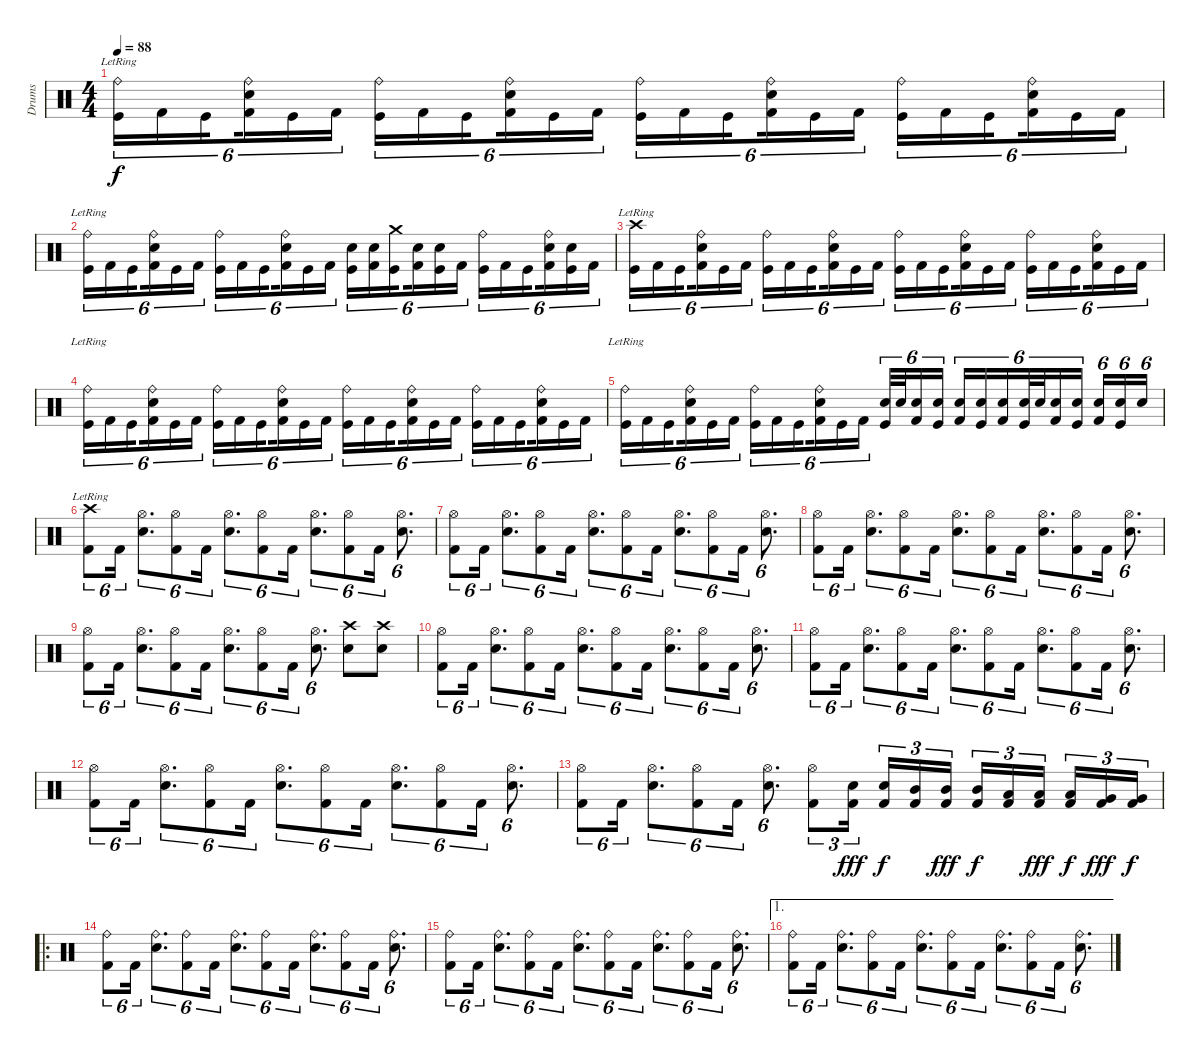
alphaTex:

\track ("Drums" "Drums") {instrument percussion}
\staff {score}
\articulation defaults
\ts (4 4)
\tempo 88
\clef neutral
\ks c
("Ride (bell)"{lr} "Kick (hit)").16{tu (6 4) dy f} "Kick (hit) 2".16{tu (6 4)} "Kick (hit)".16{tu (6 4) beam splitsecondary} ("Ride (bell)" "Snare (hit) 2" "Kick (hit) 2").16{tu (6 4)} "Kick (hit)".16{tu (6 4)} "Kick (hit) 2".16{tu (6 4)} ("Ride (bell)" "Kick (hit)").16{tu (6 4)} "Kick (hit) 2".16{tu (6 4)} "Kick (hit)".16{tu (6 4) beam splitsecondary} ("Ride (bell)" "Snare (hit) 2" "Kick (hit) 2").16{tu (6 4)} "Kick (hit)".16{tu (6 4)} "Kick (hit) 2".16{tu (6 4)} ("Ride (bell)" "Kick (hit)").16{tu (6 4)} "Kick (hit) 2".16{tu (6 4)} "Kick (hit)".16{tu (6 4) beam splitsecondary} ("Ride (bell)" "Snare (hit) 2" "Kick (hit) 2").16{tu (6 4)} "Kick (hit)".16{tu (6 4)} "Kick (hit) 2".16{tu (6 4)} ("Ride (bell)" "Kick (hit)").16{tu (6 4)} "Kick (hit) 2".16{tu (6 4)} "Kick (hit)".16{tu (6 4) beam splitsecondary} ("Ride (bell)" "Snare (hit) 2" "Kick (hit) 2").16{tu (6 4)} "Kick (hit)".16{tu (6 4)} "Kick (hit) 2".16{tu (6 4)} |
("Ride (bell)"{lr} "Kick (hit)").16{tu (6 4)} "Kick (hit) 2".16{tu (6 4)} "Kick (hit)".16{tu (6 4) beam splitsecondary} ("Ride (bell)" "Snare (hit) 2" "Kick (hit) 2").16{tu (6 4)} "Kick (hit)".16{tu (6 4)} "Kick (hit) 2".16{tu (6 4)} ("Ride (bell)" "Kick (hit)").16{tu (6 4)} "Kick (hit) 2".16{tu (6 4)} "Kick (hit)".16{tu (6 4) beam splitsecondary} ("Ride (bell)" "Snare (hit) 2" "Kick (hit) 2").16{tu (6 4)} "Kick (hit)".16{tu (6 4)} "Kick (hit) 2".16{tu (6 4)} ("Snare (hit) 2" "Kick (hit)").16{tu (6 4)} ("Snare (hit) 2" "Kick (hit) 2").16{tu (6 4)} ("Crash medium (hit)" "Kick (hit)").16{tu (6 4) beam splitsecondary} ("Snare (hit) 2" "Kick (hit) 2").16{tu (6 4)} ("Snare (hit) 2" "Kick (hit)").16{tu (6 4)} "Kick (hit) 2".16{tu (6 4)} ("Ride (bell)" "Kick (hit)").16{tu (6 4)} "Kick (hit) 2".16{tu (6 4)} "Kick (hit)".16{tu (6 4) beam splitsecondary} ("Ride (bell)" "Snare (hit) 2" "Kick (hit) 2").16{tu (6 4)} ("Snare (hit) 2" "Kick (hit)").16{tu (6 4)} "Kick (hit) 2".16{tu (6 4)} |
("Crash high (hit)"{lr} "Kick (hit)").16{tu (6 4)} "Kick (hit) 2".16{tu (6 4)} "Kick (hit)".16{tu (6 4) beam splitsecondary} ("Ride (bell)" "Snare (hit) 2" "Kick (hit) 2").16{tu (6 4)} "Kick (hit)".16{tu (6 4)} "Kick (hit) 2".16{tu (6 4)} ("Ride (bell)" "Kick (hit)").16{tu (6 4)} "Kick (hit) 2".16{tu (6 4)} "Kick (hit)".16{tu (6 4) beam splitsecondary} ("Ride (bell)" "Snare (hit) 2" "Kick (hit) 2").16{tu (6 4)} "Kick (hit)".16{tu (6 4)} "Kick (hit) 2".16{tu (6 4)} ("Ride (bell)" "Kick (hit)").16{tu (6 4)} "Kick (hit) 2".16{tu (6 4)} "Kick (hit)".16{tu (6 4) beam splitsecondary} ("Ride (bell)" "Snare (hit) 2" "Kick (hit) 2").16{tu (6 4)} "Kick (hit)".16{tu (6 4)} "Kick (hit) 2".16{tu (6 4)} ("Ride (bell)" "Kick (hit)").16{tu (6 4)} "Kick (hit) 2".16{tu (6 4)} "Kick (hit)".16{tu (6 4) beam splitsecondary} ("Ride (bell)" "Snare (hit) 2" "Kick (hit) 2").16{tu (6 4)} "Kick (hit)".16{tu (6 4)} "Kick (hit) 2".16{tu (6 4)} |
("Ride (bell)"{lr} "Kick (hit)").16{tu (6 4)} "Kick (hit) 2".16{tu (6 4)} "Kick (hit)".16{tu (6 4) beam splitsecondary} ("Ride (bell)" "Snare (hit) 2" "Kick (hit) 2").16{tu (6 4)} "Kick (hit)".16{tu (6 4)} "Kick (hit) 2".16{tu (6 4)} ("Ride (bell)" "Kick (hit)").16{tu (6 4)} "Kick (hit) 2".16{tu (6 4)} "Kick (hit)".16{tu (6 4) beam splitsecondary} ("Ride (bell)" "Snare (hit) 2" "Kick (hit) 2").16{tu (6 4)} "Kick (hit)".16{tu (6 4)} "Kick (hit) 2".16{tu (6 4)} ("Ride (bell)" "Kick (hit)").16{tu (6 4)} "Kick (hit) 2".16{tu (6 4)} "Kick (hit)".16{tu (6 4) beam splitsecondary} ("Ride (bell)" "Snare (hit) 2" "Kick (hit) 2").16{tu (6 4)} "Kick (hit)".16{tu (6 4)} "Kick (hit) 2".16{tu (6 4)} ("Ride (bell)" "Kick (hit)").16{tu (6 4)} "Kick (hit) 2".16{tu (6 4)} "Kick (hit)".16{tu (6 4) beam splitsecondary} ("Ride (bell)" "Snare (hit) 2" "Kick (hit) 2").16{tu (6 4)} "Kick (hit)".16{tu (6 4)} "Kick (hit) 2".16{tu (6 4)} |
("Ride (bell)"{lr} "Kick (hit)").16{tu (6 4)} "Kick (hit) 2".16{tu (6 4)} "Kick (hit)".16{tu (6 4) beam splitsecondary} ("Ride (bell)" "Snare (hit) 2" "Kick (hit) 2").16{tu (6 4)} "Kick (hit)".16{tu (6 4)} "Kick (hit) 2".16{tu (6 4)} ("Ride (bell)" "Kick (hit)").16{tu (6 4)} "Kick (hit) 2".16{tu (6 4)} "Kick (hit)".16{tu (6 4) beam splitsecondary} ("Ride (bell)" "Snare (hit) 2" "Kick (hit) 2").16{tu (6 4)} "Kick (hit)".16{tu (6 4)} "Kick (hit) 2".16{tu (6 4)} ("Snare (hit) 2" "Kick (hit)").32{tu (6 4)} "Snare (hit) 2".32{tu (6 4)} ("Snare (hit) 2" "Kick (hit) 2").16{tu (6 4)} ("Snare (hit) 2" "Kick (hit)").16{tu (6 4) beam splitsecondary} ("Snare (hit) 2" "Kick (hit) 2").16{tu (6 4)} ("Snare (hit) 2" "Kick (hit)").16{tu (6 4)} ("Snare (hit) 2" "Kick (hit) 2").16{tu (6 4)} ("Snare (hit) 2" "Kick (hit)").32{tu (6 4)} "Snare (hit) 2".32{tu (6 4)} ("Snare (hit) 2" "Kick (hit) 2").16{tu (6 4)} ("Snare (hit) 2" "Kick (hit)").16{tu (6 4) beam splitsecondary} ("Snare (hit) 2" "Kick (hit) 2").16{tu (6 4)} ("Snare (hit) 2" "Kick (hit)").16{tu (6 4)} "Snare (hit) 2".16{tu (6 4)} |
("Crash high (hit)"{lr} "Kick (hit) 2").8{tu (6 4)} "Kick (hit) 2".16{tu (6 4)} ("Hi-Hat (open)" "Snare (hit) 2").8{d tu (6 4)} ("Hi-Hat (open)" "Kick (hit) 2").8{tu (6 4)} "Kick (hit) 2".16{tu (6 4)} ("Hi-Hat (open)" "Snare (hit) 2").8{d tu (6 4)} ("Hi-Hat (open)" "Kick (hit) 2").8{tu (6 4)} "Kick (hit) 2".16{tu (6 4)} ("Hi-Hat (open)" "Snare (hit) 2").8{d tu (6 4)} ("Hi-Hat (open)" "Kick (hit) 2").8{tu (6 4)} "Kick (hit) 2".16{tu (6 4)} ("Hi-Hat (open)" "Snare (hit) 2").8{d tu (6 4)} |
("Hi-Hat (open)" "Kick (hit) 2").8{tu (6 4)} "Kick (hit) 2".16{tu (6 4)} ("Hi-Hat (open)" "Snare (hit) 2").8{d tu (6 4)} ("Hi-Hat (open)" "Kick (hit) 2").8{tu (6 4)} "Kick (hit) 2".16{tu (6 4)} ("Hi-Hat (open)" "Snare (hit) 2").8{d tu (6 4)} ("Hi-Hat (open)" "Kick (hit) 2").8{tu (6 4)} "Kick (hit) 2".16{tu (6 4)} ("Hi-Hat (open)" "Snare (hit) 2").8{d tu (6 4)} ("Hi-Hat (open)" "Kick (hit) 2").8{tu (6 4)} "Kick (hit) 2".16{tu (6 4)} ("Hi-Hat (open)" "Snare (hit) 2").8{d tu (6 4)} |
("Hi-Hat (open)" "Kick (hit) 2").8{tu (6 4)} "Kick (hit) 2".16{tu (6 4)} ("Hi-Hat (open)" "Snare (hit) 2").8{d tu (6 4)} ("Hi-Hat (open)" "Kick (hit) 2").8{tu (6 4)} "Kick (hit) 2".16{tu (6 4)} ("Hi-Hat (open)" "Snare (hit) 2").8{d tu (6 4)} ("Hi-Hat (open)" "Kick (hit) 2").8{tu (6 4)} "Kick (hit) 2".16{tu (6 4)} ("Hi-Hat (open)" "Snare (hit) 2").8{d tu (6 4)} ("Hi-Hat (open)" "Kick (hit) 2").8{tu (6 4)} "Kick (hit) 2".16{tu (6 4)} ("Hi-Hat (open)" "Snare (hit) 2").8{d tu (6 4)} |
("Hi-Hat (open)" "Kick (hit) 2").8{tu (6 4)} "Kick (hit) 2".16{tu (6 4)} ("Hi-Hat (open)" "Snare (hit) 2").8{d tu (6 4)} ("Hi-Hat (open)" "Kick (hit) 2").8{tu (6 4)} "Kick (hit) 2".16{tu (6 4)} ("Hi-Hat (open)" "Snare (hit) 2").8{d tu (6 4)} ("Hi-Hat (open)" "Kick (hit) 2").8{tu (6 4)} "Kick (hit) 2".16{tu (6 4)} ("Hi-Hat (open)" "Snare (hit) 2").8{d tu (6 4)} ("Crash high (hit)" "Snare (hit) 2").8 ("Crash high (hit)" "Snare (hit) 2").8 |
("Hi-Hat (open)" "Kick (hit) 2").8{tu (6 4)} "Kick (hit) 2".16{tu (6 4)} ("Hi-Hat (open)" "Snare (hit) 2").8{d tu (6 4)} ("Hi-Hat (open)" "Kick (hit) 2").8{tu (6 4)} "Kick (hit) 2".16{tu (6 4)} ("Hi-Hat (open)" "Snare (hit) 2").8{d tu (6 4)} ("Hi-Hat (open)" "Kick (hit) 2").8{tu (6 4)} "Kick (hit) 2".16{tu (6 4)} ("Hi-Hat (open)" "Snare (hit) 2").8{d tu (6 4)} ("Hi-Hat (open)" "Kick (hit) 2").8{tu (6 4)} "Kick (hit) 2".16{tu (6 4)} ("Hi-Hat (open)" "Snare (hit) 2").8{d tu (6 4)} |
("Hi-Hat (open)" "Kick (hit) 2").8{tu (6 4)} "Kick (hit) 2".16{tu (6 4)} ("Hi-Hat (open)" "Snare (hit) 2").8{d tu (6 4)} ("Hi-Hat (open)" "Kick (hit) 2").8{tu (6 4)} "Kick (hit) 2".16{tu (6 4)} ("Hi-Hat (open)" "Snare (hit) 2").8{d tu (6 4)} ("Hi-Hat (open)" "Kick (hit) 2").8{tu (6 4)} "Kick (hit) 2".16{tu (6 4)} ("Hi-Hat (open)" "Snare (hit) 2").8{d tu (6 4)} ("Hi-Hat (open)" "Kick (hit) 2").8{tu (6 4)} "Kick (hit) 2".16{tu (6 4)} ("Hi-Hat (open)" "Snare (hit) 2").8{d tu (6 4)} |
("Hi-Hat (open)" "Kick (hit) 2").8{tu (6 4)} "Kick (hit) 2".16{tu (6 4)} ("Hi-Hat (open)" "Snare (hit) 2").8{d tu (6 4)} ("Hi-Hat (open)" "Kick (hit) 2").8{tu (6 4)} "Kick (hit) 2".16{tu (6 4)} ("Hi-Hat (open)" "Snare (hit) 2").8{d tu (6 4)} ("Hi-Hat (open)" "Kick (hit) 2").8{tu (6 4)} "Kick (hit) 2".16{tu (6 4)} ("Hi-Hat (open)" "Snare (hit) 2").8{d tu (6 4)} ("Hi-Hat (open)" "Kick (hit) 2").8{tu (6 4)} "Kick (hit) 2".16{tu (6 4)} ("Hi-Hat (open)" "Snare (hit) 2").8{d tu (6 4)} |
("Hi-Hat (open)" "Kick (hit) 2").8{tu (6 4)} "Kick (hit) 2".16{tu (6 4)} ("Hi-Hat (open)" "Snare (hit) 2").8{d tu (6 4)} ("Hi-Hat (open)" "Kick (hit) 2").8{tu (6 4)} "Kick (hit) 2".16{tu (6 4)} ("Hi-Hat (open)" "Snare (hit) 2").8{d tu (6 4)} ("Hi-Hat (open)" "Kick (hit) 2").8{tu (3 2)} ("Snare (hit) 2" "Kick (hit) 2").16{tu (3 2) dy fff beam splitsecondary} ("Snare (hit) 2" "Kick (hit) 2").16{tu (3 2) dy f} ("Mid Tom (hit)" "Kick (hit) 2").16{tu (3 2)} ("Mid Tom (hit)" "Kick (hit) 2").16{tu (3 2) dy fff} ("Mid Tom (hit)" "Kick (hit) 2").16{tu (3 2) dy f} ("Low Tom (hit)" "Kick (hit) 2").16{tu (3 2)} ("Low Tom (hit)" "Kick (hit) 2").16{tu (3 2) dy fff beam splitsecondary} ("Low Tom (hit)" "Kick (hit) 2").16{tu (3 2) dy f} ("Very Low Tom (hit)" "Kick (hit) 2").16{tu (3 2) dy fff} ("Very Low Tom (hit)" "Kick (hit) 2").16{tu (3 2) dy f} |
\ro
("Ride (bell)" "Kick (hit) 2").8{tu (6 4)} "Kick (hit) 2".16{tu (6 4)} ("Ride (bell)" "Snare (hit) 2").8{d tu (6 4)} ("Ride (bell)" "Kick (hit) 2").8{tu (6 4)} "Kick (hit) 2".16{tu (6 4)} ("Ride (bell)" "Snare (hit) 2").8{d tu (6 4)} ("Ride (bell)" "Kick (hit) 2").8{tu (6 4)} "Kick (hit) 2".16{tu (6 4)} ("Ride (bell)" "Snare (hit) 2").8{d tu (6 4)} ("Ride (bell)" "Kick (hit) 2").8{tu (6 4)} "Kick (hit) 2".16{tu (6 4)} ("Ride (bell)" "Snare (hit) 2").8{d tu (6 4)} |
("Ride (bell)" "Kick (hit) 2").8{tu (6 4)} "Kick (hit) 2".16{tu (6 4)} ("Ride (bell)" "Snare (hit) 2").8{d tu (6 4)} ("Ride (bell)" "Kick (hit) 2").8{tu (6 4)} "Kick (hit) 2".16{tu (6 4)} ("Ride (bell)" "Snare (hit) 2").8{d tu (6 4)} ("Ride (bell)" "Kick (hit) 2").8{tu (6 4)} "Kick (hit) 2".16{tu (6 4)} ("Ride (bell)" "Snare (hit) 2").8{d tu (6 4)} ("Ride (bell)" "Kick (hit) 2").8{tu (6 4)} "Kick (hit) 2".16{tu (6 4)} ("Ride (bell)" "Snare (hit) 2").8{d tu (6 4)} |
\ae 1
("Ride (bell)" "Kick (hit) 2").8{tu (6 4)} "Kick (hit) 2".16{tu (6 4)} ("Ride (bell)" "Snare (hit) 2").8{d tu (6 4)} ("Ride (bell)" "Kick (hit) 2").8{tu (6 4)} "Kick (hit) 2".16{tu (6 4)} ("Ride (bell)" "Snare (hit) 2").8{d tu (6 4)} ("Ride (bell)" "Kick (hit) 2").8{tu (6 4)} "Kick (hit) 2".16{tu (6 4)} ("Ride (bell)" "Snare (hit) 2").8{d tu (6 4)} ("Ride (bell)" "Kick (hit) 2").8{tu (6 4)} "Kick (hit) 2".16{tu (6 4)} ("Ride (bell)" "Snare (hit) 2").8{d tu (6 4)}
